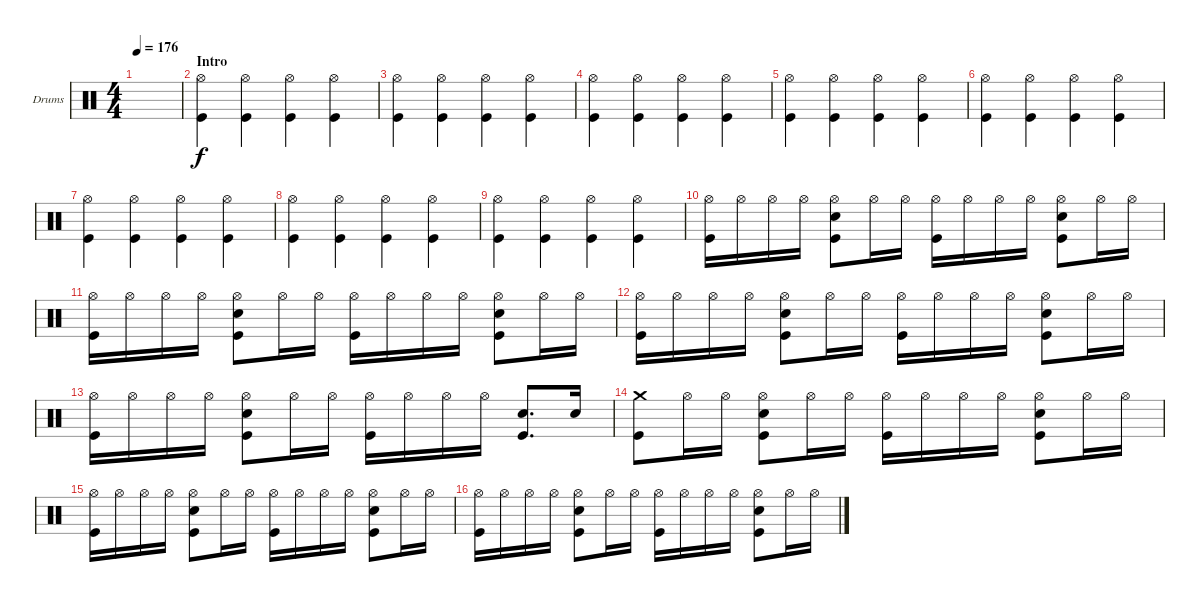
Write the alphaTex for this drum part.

\bracketExtendMode groupsimilarinstruments
\firstSystemTrackNameOrientation horizontal
\otherSystemsTrackNameOrientation horizontal
\track ("Drums" "Drums") {instrument percussion}
\staff {score}
\articulation defaults
\ts (4 4)
\beaming (8 2 2 2 2)
\tempo 176
\clef neutral
\ks c
|
\section ("" "Intro")
("Hi-Hat (open)" "Kick (hit)").4 ("Hi-Hat (open)" "Kick (hit)").4 ("Hi-Hat (open)" "Kick (hit)").4 ("Hi-Hat (open)" "Kick (hit)").4 |
("Hi-Hat (open)" "Kick (hit)").4 ("Hi-Hat (open)" "Kick (hit)").4 ("Hi-Hat (open)" "Kick (hit)").4 ("Hi-Hat (open)" "Kick (hit)").4 |
("Hi-Hat (open)" "Kick (hit)").4 ("Hi-Hat (open)" "Kick (hit)").4 ("Hi-Hat (open)" "Kick (hit)").4 ("Hi-Hat (open)" "Kick (hit)").4 |
("Hi-Hat (open)" "Kick (hit)").4 ("Hi-Hat (open)" "Kick (hit)").4 ("Hi-Hat (open)" "Kick (hit)").4 ("Hi-Hat (open)" "Kick (hit)").4 |
("Hi-Hat (open)" "Kick (hit)").4 ("Hi-Hat (open)" "Kick (hit)").4 ("Hi-Hat (open)" "Kick (hit)").4 ("Hi-Hat (open)" "Kick (hit)").4 |
("Hi-Hat (open)" "Kick (hit)").4 ("Hi-Hat (open)" "Kick (hit)").4 ("Hi-Hat (open)" "Kick (hit)").4 ("Hi-Hat (open)" "Kick (hit)").4 |
("Hi-Hat (open)" "Kick (hit)").4 ("Hi-Hat (open)" "Kick (hit)").4 ("Hi-Hat (open)" "Kick (hit)").4 ("Hi-Hat (open)" "Kick (hit)").4 |
("Hi-Hat (open)" "Kick (hit)").4 ("Hi-Hat (open)" "Kick (hit)").4 ("Hi-Hat (open)" "Kick (hit)").4 ("Hi-Hat (open)" "Kick (hit)").4 |
("Kick (hit)" "Hi-Hat (open)").16 "Hi-Hat (open)".16 "Hi-Hat (open)".16 "Hi-Hat (open)".16 ("Hi-Hat (open)" "Snare (hit) 2" "Kick (hit)").8 "Hi-Hat (open)".16 "Hi-Hat (open)".16 ("Hi-Hat (open)" "Kick (hit)").16 "Hi-Hat (open)".16 "Hi-Hat (open)".16 "Hi-Hat (open)".16 ("Hi-Hat (open)" "Snare (hit) 2" "Kick (hit)").8 "Hi-Hat (open)".16 "Hi-Hat (open)".16 |
("Kick (hit)" "Hi-Hat (open)").16 "Hi-Hat (open)".16 "Hi-Hat (open)".16 "Hi-Hat (open)".16 ("Hi-Hat (open)" "Snare (hit) 2" "Kick (hit)").8 "Hi-Hat (open)".16 "Hi-Hat (open)".16 ("Hi-Hat (open)" "Kick (hit)").16 "Hi-Hat (open)".16 "Hi-Hat (open)".16 "Hi-Hat (open)".16 ("Hi-Hat (open)" "Snare (hit) 2" "Kick (hit)").8 "Hi-Hat (open)".16 "Hi-Hat (open)".16 |
("Kick (hit)" "Hi-Hat (open)").16 "Hi-Hat (open)".16 "Hi-Hat (open)".16 "Hi-Hat (open)".16 ("Hi-Hat (open)" "Snare (hit) 2" "Kick (hit)").8 "Hi-Hat (open)".16 "Hi-Hat (open)".16 ("Hi-Hat (open)" "Kick (hit)").16 "Hi-Hat (open)".16 "Hi-Hat (open)".16 "Hi-Hat (open)".16 ("Hi-Hat (open)" "Snare (hit) 2" "Kick (hit)").8 "Hi-Hat (open)".16 "Hi-Hat (open)".16 |
("Kick (hit)" "Hi-Hat (open)").16 "Hi-Hat (open)".16 "Hi-Hat (open)".16 "Hi-Hat (open)".16 ("Hi-Hat (open)" "Snare (hit) 2" "Kick (hit)").8 "Hi-Hat (open)".16 "Hi-Hat (open)".16 ("Hi-Hat (open)" "Kick (hit)").16 "Hi-Hat (open)".16 "Hi-Hat (open)".16 "Hi-Hat (open)".16 ("Snare (hit) 2" "Kick (hit)").8{d} "Snare (hit) 2".16 |
("Kick (hit)" "Crash medium (hit)").8 "Hi-Hat (open)".16 "Hi-Hat (open)".16 ("Hi-Hat (open)" "Snare (hit) 2" "Kick (hit)").8 "Hi-Hat (open)".16 "Hi-Hat (open)".16 ("Hi-Hat (open)" "Kick (hit)").16 "Hi-Hat (open)".16 "Hi-Hat (open)".16 "Hi-Hat (open)".16 ("Hi-Hat (open)" "Snare (hit) 2" "Kick (hit)").8 "Hi-Hat (open)".16 "Hi-Hat (open)".16 |
("Kick (hit)" "Hi-Hat (open)").16 "Hi-Hat (open)".16 "Hi-Hat (open)".16 "Hi-Hat (open)".16 ("Hi-Hat (open)" "Snare (hit) 2" "Kick (hit)").8 "Hi-Hat (open)".16 "Hi-Hat (open)".16 ("Hi-Hat (open)" "Kick (hit)").16 "Hi-Hat (open)".16 "Hi-Hat (open)".16 "Hi-Hat (open)".16 ("Hi-Hat (open)" "Snare (hit) 2" "Kick (hit)").8 "Hi-Hat (open)".16 "Hi-Hat (open)".16 |
("Kick (hit)" "Hi-Hat (open)").16 "Hi-Hat (open)".16 "Hi-Hat (open)".16 "Hi-Hat (open)".16 ("Hi-Hat (open)" "Snare (hit) 2" "Kick (hit)").8 "Hi-Hat (open)".16 "Hi-Hat (open)".16 ("Hi-Hat (open)" "Kick (hit)").16 "Hi-Hat (open)".16 "Hi-Hat (open)".16 "Hi-Hat (open)".16 ("Hi-Hat (open)" "Snare (hit) 2" "Kick (hit)").8 "Hi-Hat (open)".16 "Hi-Hat (open)".16
